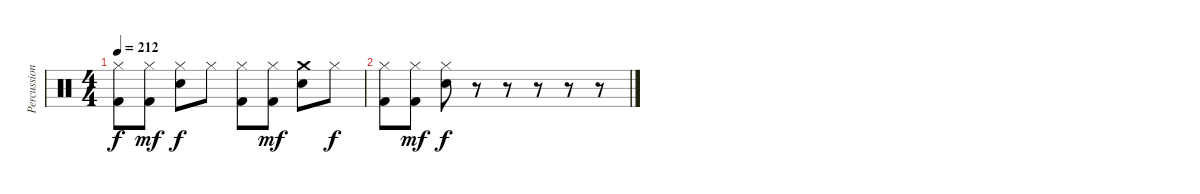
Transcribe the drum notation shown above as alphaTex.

\track ("Percussion" "Percussion") {instrument percussion}
\staff {score}
\articulation defaults
\ts (4 4)
\tempo 212
\clef neutral
\ks c
("Hi-Hat (closed)" "Kick (hit) 2").8{dy f} ("Hi-Hat (closed)" "Kick (hit) 2").8{dy mf} ("Hi-Hat (closed)" "Snare (hit) 2").8{dy f} "Hi-Hat (closed)".8 ("Hi-Hat (closed)" "Kick (hit) 2").8 ("Hi-Hat (closed)" "Kick (hit) 2").8{dy mf} ("Crash medium (hit)" "Snare (hit) 2").8 "Hi-Hat (closed)".8{dy f} |
("Hi-Hat (closed)" "Kick (hit) 2").8 ("Hi-Hat (closed)" "Kick (hit) 2").8{dy mf} ("Hi-Hat (closed)" "Snare (hit) 2").8{dy f} r.8 r.8 r.8 r.8 r.8
